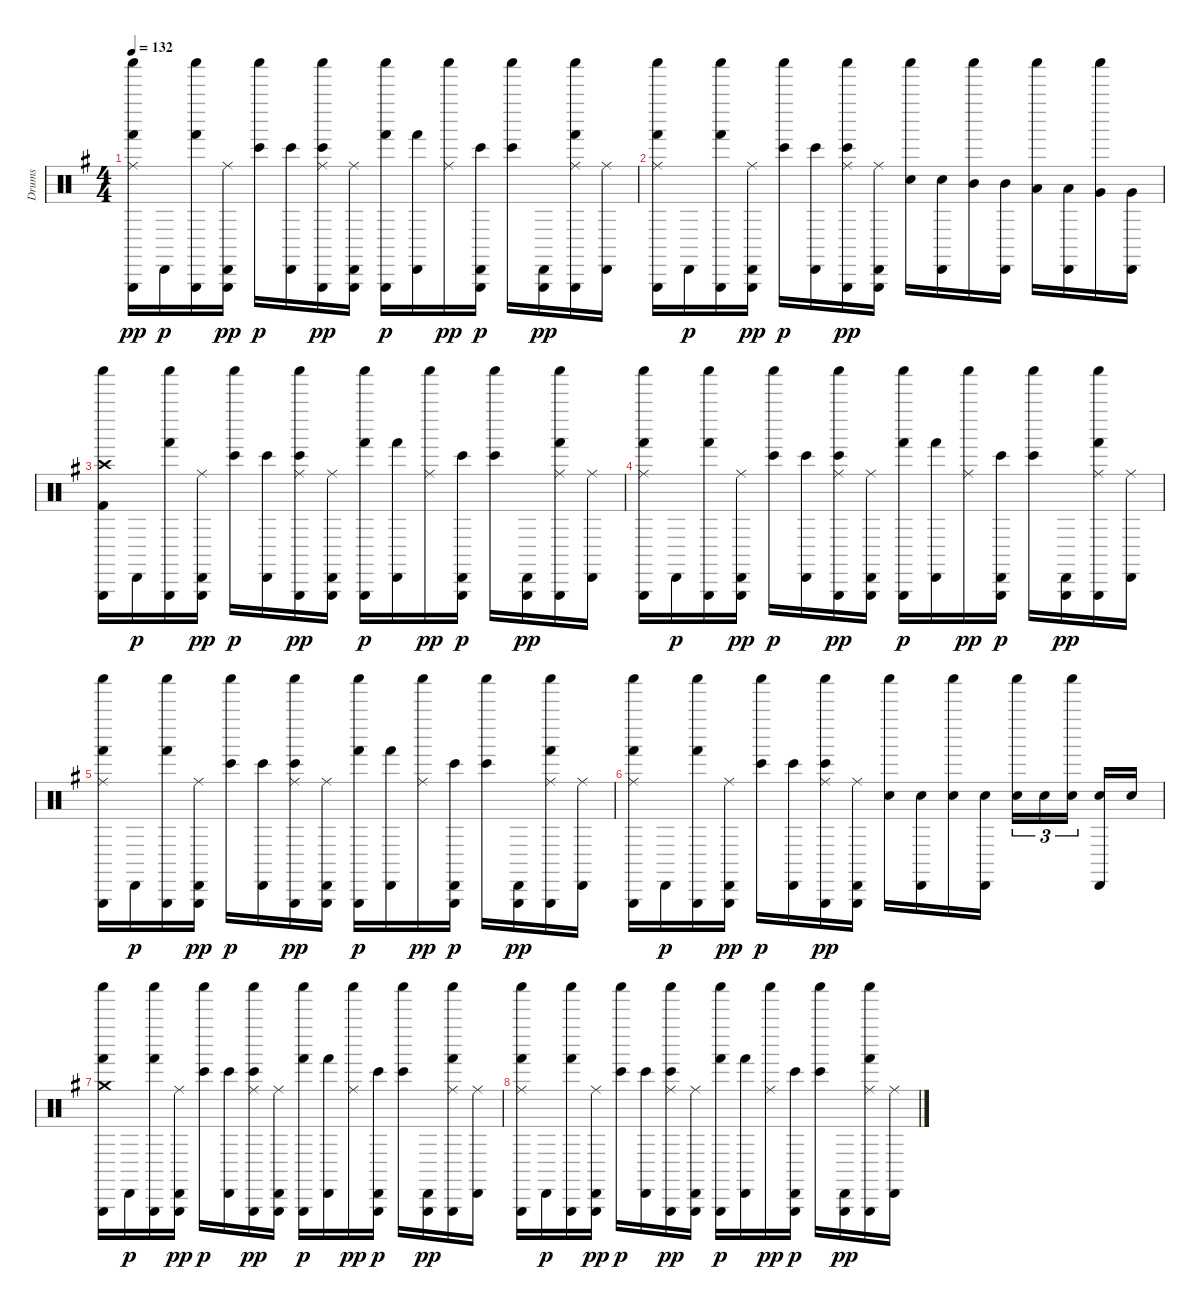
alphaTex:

\track ("Drums" "Drums") {instrument percussion}
\staff {score}
\articulation defaults
\ts (4 4)
\tempo 132
\clef neutral
\ks g
("Shaker (hit)" "Triangle (hit)" "Hand (hit)" "Ride (middle)").16{dy pp} "Cabasa (hit)".16{dy p} ("Shaker (hit)" "Triangle (hit)" "Hand (hit)").16 ("Cabasa (hit)" "Triangle (hit)" "Ride (middle)").16{dy pp} ("Shaker (hit)" "Bongo High (hit)").16{dy p} ("Cabasa (hit)" "Bongo High (hit)").16 ("Shaker (hit)" "Triangle (hit)" "Bongo High (hit)" "Ride (middle)").16{dy pp} ("Cabasa (hit)" "Triangle (hit)" "Ride (middle)").16 ("Shaker (hit)" "Triangle (hit)" "Hand (hit)").16{dy p} ("Cabasa (hit)" "Hand (hit)").16 ("Shaker (hit)" "Ride (middle)").16{dy pp} ("Cabasa (hit)" "Triangle (hit)" "Bongo High (hit)").16{dy p} ("Shaker (hit)" "Bongo High (hit)").16 ("Cabasa (hit)" "Triangle (hit)").16{dy pp} ("Shaker (hit)" "Triangle (hit)" "Hand (hit)" "Ride (middle)").16 ("Cabasa (hit)" "Ride (middle)").16 |
("Shaker (hit)" "Triangle (hit)" "Hand (hit)" "Ride (middle)").16 "Cabasa (hit)".16{dy p} ("Shaker (hit)" "Triangle (hit)" "Hand (hit)").16 ("Cabasa (hit)" "Triangle (hit)" "Ride (middle)").16{dy pp} ("Shaker (hit)" "Bongo High (hit)").16{dy p} ("Cabasa (hit)" "Bongo High (hit)").16 ("Shaker (hit)" "Triangle (hit)" "Bongo High (hit)" "Ride (middle)").16{dy pp} ("Cabasa (hit)" "Triangle (hit)" "Ride (middle)").16 ("Shaker (hit)" "Snare (hit) 2").16 ("Cabasa (hit)" "Snare (hit) 2").16 ("Shaker (hit)" "Mid Tom (hit)").16 ("Cabasa (hit)" "Mid Tom (hit)").16 ("Shaker (hit)" "Low Tom (hit)").16 ("Cabasa (hit)" "Low Tom (hit)").16 ("Shaker (hit)" "Very Low Tom (hit)").16 ("Cabasa (hit)" "Very Low Tom (hit)").16 |
("Shaker (hit)" "Triangle (hit)" "Kick (hit) 2" "Crash high (hit)").16 "Cabasa (hit)".16{dy p} ("Shaker (hit)" "Triangle (hit)" "Hand (hit)").16 ("Cabasa (hit)" "Triangle (hit)" "Ride (middle)").16{dy pp} ("Shaker (hit)" "Bongo High (hit)").16{dy p} ("Cabasa (hit)" "Bongo High (hit)").16 ("Shaker (hit)" "Triangle (hit)" "Bongo High (hit)" "Ride (middle)").16{dy pp} ("Cabasa (hit)" "Triangle (hit)" "Ride (middle)").16 ("Shaker (hit)" "Triangle (hit)" "Hand (hit)").16{dy p} ("Cabasa (hit)" "Hand (hit)").16 ("Shaker (hit)" "Ride (middle)").16{dy pp} ("Cabasa (hit)" "Triangle (hit)" "Bongo High (hit)").16{dy p} ("Shaker (hit)" "Bongo High (hit)").16 ("Cabasa (hit)" "Triangle (hit)").16{dy pp} ("Shaker (hit)" "Triangle (hit)" "Hand (hit)" "Ride (middle)").16 ("Cabasa (hit)" "Ride (middle)").16 |
("Shaker (hit)" "Triangle (hit)" "Hand (hit)" "Ride (middle)").16 "Cabasa (hit)".16{dy p} ("Shaker (hit)" "Triangle (hit)" "Hand (hit)").16 ("Cabasa (hit)" "Triangle (hit)" "Ride (middle)").16{dy pp} ("Shaker (hit)" "Bongo High (hit)").16{dy p} ("Cabasa (hit)" "Bongo High (hit)").16 ("Shaker (hit)" "Triangle (hit)" "Bongo High (hit)" "Ride (middle)").16{dy pp} ("Cabasa (hit)" "Triangle (hit)" "Ride (middle)").16 ("Shaker (hit)" "Triangle (hit)" "Hand (hit)").16{dy p} ("Cabasa (hit)" "Hand (hit)").16 ("Shaker (hit)" "Ride (middle)").16{dy pp} ("Cabasa (hit)" "Triangle (hit)" "Bongo High (hit)").16{dy p} ("Shaker (hit)" "Bongo High (hit)").16 ("Cabasa (hit)" "Triangle (hit)").16{dy pp} ("Shaker (hit)" "Triangle (hit)" "Hand (hit)" "Ride (middle)").16 ("Cabasa (hit)" "Ride (middle)").16 |
("Shaker (hit)" "Triangle (hit)" "Hand (hit)" "Ride (middle)").16 "Cabasa (hit)".16{dy p} ("Shaker (hit)" "Triangle (hit)" "Hand (hit)").16 ("Cabasa (hit)" "Triangle (hit)" "Ride (middle)").16{dy pp} ("Shaker (hit)" "Bongo High (hit)").16{dy p} ("Cabasa (hit)" "Bongo High (hit)").16 ("Shaker (hit)" "Triangle (hit)" "Bongo High (hit)" "Ride (middle)").16{dy pp} ("Cabasa (hit)" "Triangle (hit)" "Ride (middle)").16 ("Shaker (hit)" "Triangle (hit)" "Hand (hit)").16{dy p} ("Cabasa (hit)" "Hand (hit)").16 ("Shaker (hit)" "Ride (middle)").16{dy pp} ("Cabasa (hit)" "Triangle (hit)" "Bongo High (hit)").16{dy p} ("Shaker (hit)" "Bongo High (hit)").16 ("Cabasa (hit)" "Triangle (hit)").16{dy pp} ("Shaker (hit)" "Triangle (hit)" "Hand (hit)" "Ride (middle)").16 ("Cabasa (hit)" "Ride (middle)").16 |
("Shaker (hit)" "Triangle (hit)" "Hand (hit)" "Ride (middle)").16 "Cabasa (hit)".16{dy p} ("Shaker (hit)" "Triangle (hit)" "Hand (hit)").16 ("Cabasa (hit)" "Triangle (hit)" "Ride (middle)").16{dy pp} ("Shaker (hit)" "Bongo High (hit)").16{dy p} ("Cabasa (hit)" "Bongo High (hit)").16 ("Shaker (hit)" "Triangle (hit)" "Bongo High (hit)" "Ride (middle)").16{dy pp} ("Cabasa (hit)" "Triangle (hit)" "Ride (middle)").16 ("Shaker (hit)" "Snare (hit) 2").16 ("Cabasa (hit)" "Snare (hit) 2").16 ("Shaker (hit)" "Snare (hit) 2").16 ("Cabasa (hit)" "Snare (hit) 2").16 ("Shaker (hit)" "Snare (hit) 2").16{tu (3 2)} "Snare (hit) 2".16{tu (3 2)} ("Shaker (hit)" "Snare (hit) 2").16{tu (3 2) beam splitsecondary} ("Cabasa (hit)" "Snare (hit) 2").16 "Snare (hit) 2".16 |
("Shaker (hit)" "Triangle (hit)" "Hand (hit)" "Crash medium (hit)").16 "Cabasa (hit)".16{dy p} ("Shaker (hit)" "Triangle (hit)" "Hand (hit)").16 ("Cabasa (hit)" "Triangle (hit)" "Ride (middle)").16{dy pp} ("Shaker (hit)" "Bongo High (hit)").16{dy p} ("Cabasa (hit)" "Bongo High (hit)").16 ("Shaker (hit)" "Triangle (hit)" "Bongo High (hit)" "Ride (middle)").16{dy pp} ("Cabasa (hit)" "Triangle (hit)" "Ride (middle)").16 ("Shaker (hit)" "Triangle (hit)" "Hand (hit)").16{dy p} ("Cabasa (hit)" "Hand (hit)").16 ("Shaker (hit)" "Ride (middle)").16{dy pp} ("Cabasa (hit)" "Triangle (hit)" "Bongo High (hit)").16{dy p} ("Shaker (hit)" "Bongo High (hit)").16 ("Cabasa (hit)" "Triangle (hit)").16{dy pp} ("Shaker (hit)" "Triangle (hit)" "Hand (hit)" "Ride (middle)").16 ("Cabasa (hit)" "Ride (middle)").16 |
("Shaker (hit)" "Triangle (hit)" "Hand (hit)" "Ride (middle)").16 "Cabasa (hit)".16{dy p} ("Shaker (hit)" "Triangle (hit)" "Hand (hit)").16 ("Cabasa (hit)" "Triangle (hit)" "Ride (middle)").16{dy pp} ("Shaker (hit)" "Bongo High (hit)").16{dy p} ("Cabasa (hit)" "Bongo High (hit)").16 ("Shaker (hit)" "Triangle (hit)" "Bongo High (hit)" "Ride (middle)").16{dy pp} ("Cabasa (hit)" "Triangle (hit)" "Ride (middle)").16 ("Shaker (hit)" "Triangle (hit)" "Hand (hit)").16{dy p} ("Cabasa (hit)" "Hand (hit)").16 ("Shaker (hit)" "Ride (middle)").16{dy pp} ("Cabasa (hit)" "Triangle (hit)" "Bongo High (hit)").16{dy p} ("Shaker (hit)" "Bongo High (hit)").16 ("Cabasa (hit)" "Triangle (hit)").16{dy pp} ("Shaker (hit)" "Triangle (hit)" "Hand (hit)" "Ride (middle)").16 ("Cabasa (hit)" "Ride (middle)").16
